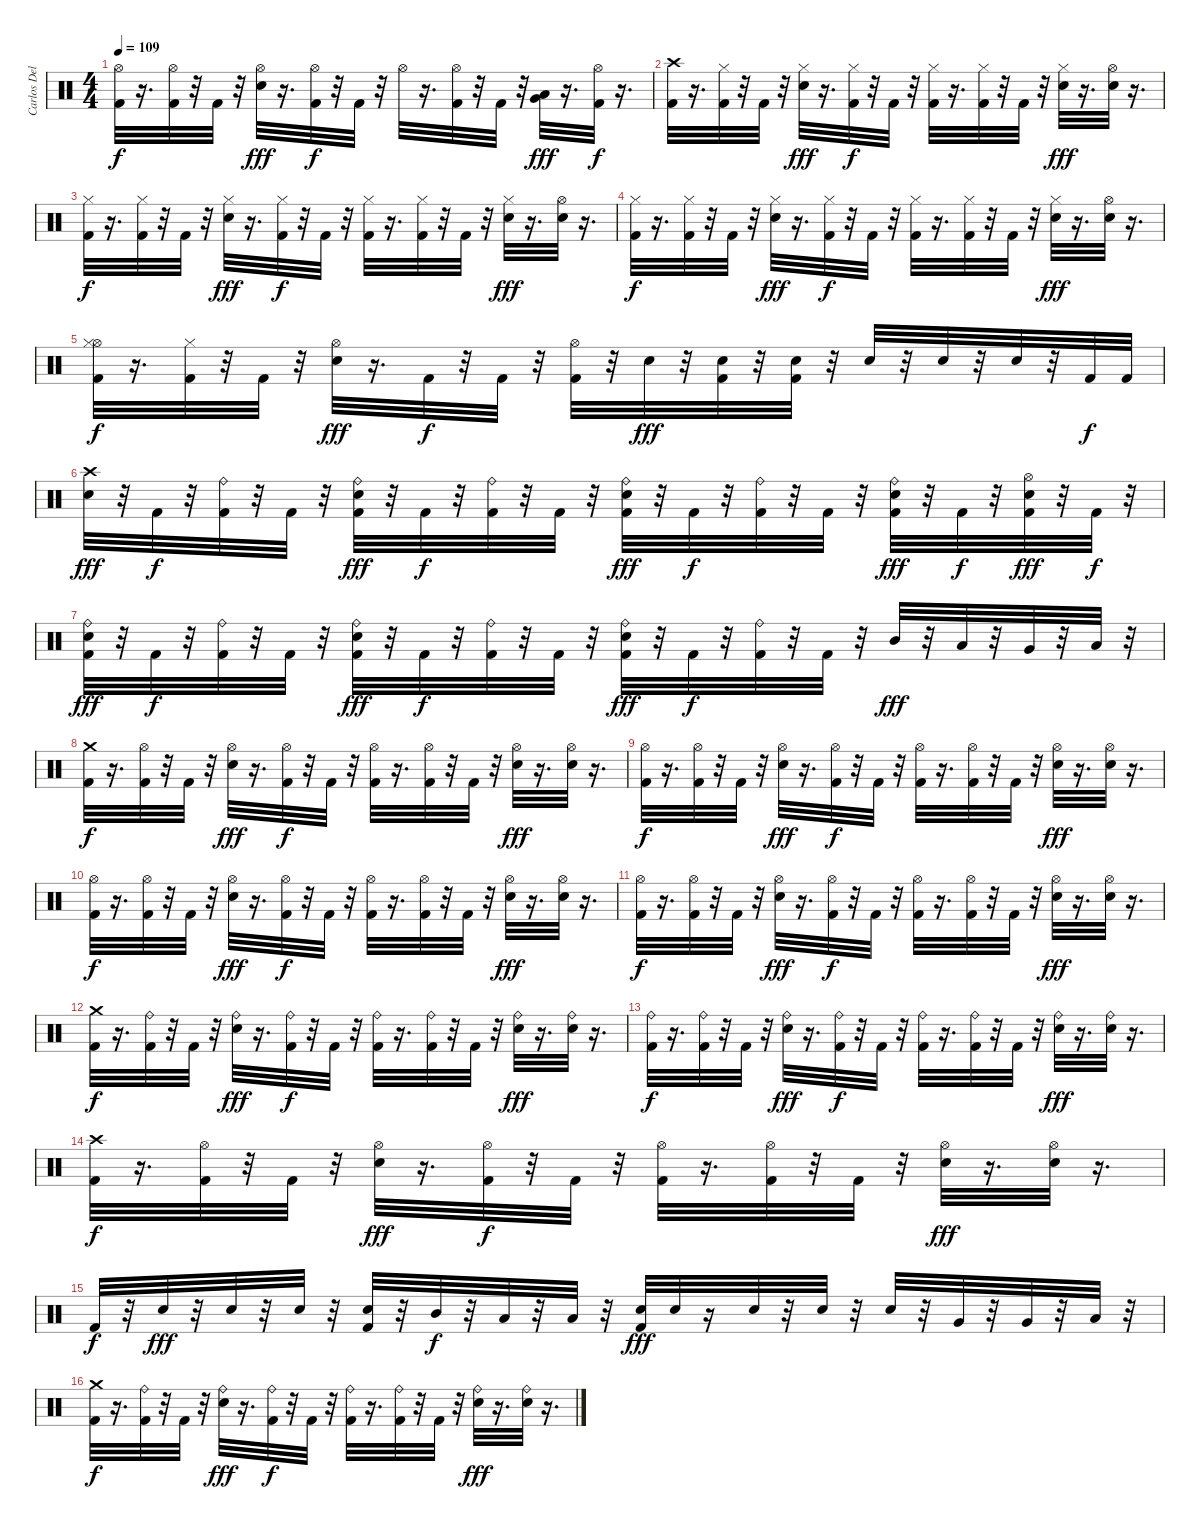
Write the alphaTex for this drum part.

\track ("Carlos Delgado" "Carlos Del") {instrument percussion}
\staff {score}
\articulation defaults
\ts (4 4)
\tempo 109
\clef neutral
\ks c
("Hi-Hat (open)" "Kick (hit) 2").32{dy f} r.16{d} ("Hi-Hat (open)" "Kick (hit) 2").32 r.32 "Kick (hit) 2".32 r.32 ("Hi-Hat (open)" "Electric Snare (hit)").32{dy fff} r.16{d} ("Hi-Hat (open)" "Kick (hit) 2").32{dy f} r.32 "Kick (hit) 2".32 r.32 "Hi-Hat (open)".32 r.16{d} ("Hi-Hat (open)" "Kick (hit) 2").32 r.32 "Kick (hit) 2".32 r.32 ("Very Low Tom (hit)" "Low Floor Tom (hit)").32{dy fff} r.16{d} ("Hi-Hat (open)" "Kick (hit) 2").32{dy f} r.16{d} |
("Crash high (hit)" "Kick (hit) 2").32 r.16{d} ("Kick (hit) 2" "Hi-Hat (closed)").32 r.32 "Kick (hit) 2".32 r.32 ("Hi-Hat (closed)" "Electric Snare (hit)").32{dy fff} r.16{d} ("Hi-Hat (closed)" "Kick (hit) 2").32{dy f} r.32 "Kick (hit) 2".32 r.32 ("Kick (hit) 2" "Hi-Hat (closed)").32 r.16{d} ("Kick (hit) 2" "Hi-Hat (closed)").32 r.32 "Kick (hit) 2".32 r.32 ("Electric Snare (hit)" "Hi-Hat (closed)").32{dy fff} r.16{d} ("Hi-Hat (open)" "Electric Snare (hit)").32 r.16{d} |
("Kick (hit) 2" "Hi-Hat (closed)").32{dy f} r.16{d} ("Hi-Hat (closed)" "Kick (hit) 2").32 r.32 "Kick (hit) 2".32 r.32 ("Hi-Hat (closed)" "Electric Snare (hit)").32{dy fff} r.16{d} ("Kick (hit) 2" "Hi-Hat (closed)").32{dy f} r.32 "Kick (hit) 2".32 r.32 ("Hi-Hat (closed)" "Kick (hit) 2").32 r.16{d} ("Kick (hit) 2" "Hi-Hat (closed)").32 r.32 "Kick (hit) 2".32 r.32 ("Electric Snare (hit)" "Hi-Hat (closed)").32{dy fff} r.16{d} ("Electric Snare (hit)" "Hi-Hat (open)").32 r.16{d} |
("Hi-Hat (closed)" "Kick (hit) 2").32{dy f} r.16{d} ("Hi-Hat (closed)" "Kick (hit) 2").32 r.32 "Kick (hit) 2".32 r.32 ("Electric Snare (hit)" "Hi-Hat (closed)").32{dy fff} r.16{d} ("Kick (hit) 2" "Hi-Hat (closed)").32{dy f} r.32 "Kick (hit) 2".32 r.32 ("Hi-Hat (closed)" "Kick (hit) 2").32 r.16{d} ("Hi-Hat (closed)" "Kick (hit) 2").32 r.32 "Kick (hit) 2".32 r.32 ("Hi-Hat (closed)" "Electric Snare (hit)").32{dy fff} r.16{d} ("Electric Snare (hit)" "Hi-Hat (open)").32 r.16{d} |
("Hi-Hat (open)" "Hi-Hat (closed)" "Kick (hit) 2").32{dy f} r.16{d} ("Hi-Hat (closed)" "Kick (hit) 2").32 r.32 "Kick (hit) 2".32 r.32 ("Electric Snare (hit)" "Hi-Hat (open)").32{dy fff} r.16{d} "Kick (hit) 2".32{dy f} r.32 "Kick (hit) 2".32 r.32 ("Kick (hit) 2" "Hi-Hat (open)").32 r.32 "Electric Snare (hit)".32{dy fff} r.32 ("Kick (hit) 2" "Electric Snare (hit)").32 r.32 ("Electric Snare (hit)" "Kick (hit) 2").32 r.32 "Electric Snare (hit)".32 r.32 "Electric Snare (hit)".32 r.32 "Electric Snare (hit)".32 r.32 "Kick (hit) 2".32{dy f} "Kick (hit) 2".32 |
("Crash high (hit)" "Electric Snare (hit)").32{dy fff} r.32 "Kick (hit) 2".32{dy f} r.32 ("Kick (hit) 2" "Ride (bell)").32 r.32 "Kick (hit) 2".32 r.32 ("Ride (bell)" "Electric Snare (hit)" "Kick (hit) 2").32{dy fff} r.32 "Kick (hit) 2".32{dy f} r.32 ("Ride (bell)" "Kick (hit) 2").32 r.32 "Kick (hit) 2".32 r.32 ("Electric Snare (hit)" "Ride (bell)" "Kick (hit) 2").32{dy fff} r.32 "Kick (hit) 2".32{dy f} r.32 ("Ride (bell)" "Kick (hit) 2").32 r.32 "Kick (hit) 2".32 r.32 ("Ride (bell)" "Kick (hit) 2" "Electric Snare (hit)").32{dy fff} r.32 "Kick (hit) 2".32{dy f} r.32 ("Electric Snare (hit)" "Kick (hit) 2" "Hi-Hat (open)").32{dy fff} r.32 "Kick (hit) 2".32{dy f} r.32 |
("Electric Snare (hit)" "Ride (bell)" "Kick (hit) 2").32{dy fff} r.32 "Kick (hit) 2".32{dy f} r.32 ("Ride (bell)" "Kick (hit) 2").32 r.32 "Kick (hit) 2".32 r.32 ("Ride (bell)" "Electric Snare (hit)" "Kick (hit) 2").32{dy fff} r.32 "Kick (hit) 2".32{dy f} r.32 ("Kick (hit) 2" "Ride (bell)").32 r.32 "Kick (hit) 2".32 r.32 ("Electric Snare (hit)" "Ride (bell)" "Kick (hit) 2").32{dy fff} r.32 "Kick (hit) 2".32{dy f} r.32 ("Ride (bell)" "Kick (hit) 2").32 r.32 "Kick (hit) 2".32 r.32 "Mid Tom (hit)".32{dy fff} r.32 "Low Tom (hit)".32 r.32 "Very Low Tom (hit)".32 r.32 "Low Floor Tom (hit)".32 r.32 |
("Crash medium (hit)" "Kick (hit) 2").32{dy f} r.16{d} ("Hi-Hat (open)" "Kick (hit) 2").32 r.32 "Kick (hit) 2".32 r.32 ("Electric Snare (hit)" "Hi-Hat (open)").32{dy fff} r.16{d} ("Kick (hit) 2" "Hi-Hat (open)").32{dy f} r.32 "Kick (hit) 2".32 r.32 ("Hi-Hat (open)" "Kick (hit) 2").32 r.16{d} ("Hi-Hat (open)" "Kick (hit) 2").32 r.32 "Kick (hit) 2".32 r.32 ("Hi-Hat (open)" "Electric Snare (hit)").32{dy fff} r.16{d} ("Electric Snare (hit)" "Hi-Hat (open)").32 r.16{d} |
("Kick (hit) 2" "Hi-Hat (open)").32{dy f} r.16{d} ("Hi-Hat (open)" "Kick (hit) 2").32 r.32 "Kick (hit) 2".32 r.32 ("Hi-Hat (open)" "Electric Snare (hit)").32{dy fff} r.16{d} ("Hi-Hat (open)" "Kick (hit) 2").32{dy f} r.32 "Kick (hit) 2".32 r.32 ("Hi-Hat (open)" "Kick (hit) 2").32 r.16{d} ("Kick (hit) 2" "Hi-Hat (open)").32 r.32 "Kick (hit) 2".32 r.32 ("Electric Snare (hit)" "Hi-Hat (open)").32{dy fff} r.16{d} ("Electric Snare (hit)" "Hi-Hat (open)").32 r.16{d} |
("Hi-Hat (open)" "Kick (hit) 2").32{dy f} r.16{d} ("Kick (hit) 2" "Hi-Hat (open)").32 r.32 "Kick (hit) 2".32 r.32 ("Hi-Hat (open)" "Electric Snare (hit)").32{dy fff} r.16{d} ("Kick (hit) 2" "Hi-Hat (open)").32{dy f} r.32 "Kick (hit) 2".32 r.32 ("Kick (hit) 2" "Hi-Hat (open)").32 r.16{d} ("Hi-Hat (open)" "Kick (hit) 2").32 r.32 "Kick (hit) 2".32 r.32 ("Electric Snare (hit)" "Hi-Hat (open)").32{dy fff} r.16{d} ("Electric Snare (hit)" "Hi-Hat (open)").32 r.16{d} |
("Hi-Hat (open)" "Kick (hit) 2").32{dy f} r.16{d} ("Hi-Hat (open)" "Kick (hit) 2").32 r.32 "Kick (hit) 2".32 r.32 ("Electric Snare (hit)" "Hi-Hat (open)").32{dy fff} r.16{d} ("Kick (hit) 2" "Hi-Hat (open)").32{dy f} r.32 "Kick (hit) 2".32 r.32 ("Hi-Hat (open)" "Kick (hit) 2").32 r.16{d} ("Hi-Hat (open)" "Kick (hit) 2").32 r.32 "Kick (hit) 2".32 r.32 ("Hi-Hat (open)" "Electric Snare (hit)").32{dy fff} r.16{d} ("Hi-Hat (open)" "Electric Snare (hit)").32 r.16{d} |
("Kick (hit) 2" "Crash medium (hit)").32{dy f} r.16{d} ("Kick (hit) 2" "Ride (bell)").32 r.32 "Kick (hit) 2".32 r.32 ("Electric Snare (hit)" "Ride (bell)").32{dy fff} r.16{d} ("Kick (hit) 2" "Ride (bell)").32{dy f} r.32 "Kick (hit) 2".32 r.32 ("Kick (hit) 2" "Ride (bell)").32 r.16{d} ("Ride (bell)" "Kick (hit) 2").32 r.32 "Kick (hit) 2".32 r.32 ("Ride (bell)" "Electric Snare (hit)").32{dy fff} r.16{d} ("Ride (bell)" "Electric Snare (hit)").32 r.16{d} |
("Ride (bell)" "Kick (hit) 2").32{dy f} r.16{d} ("Kick (hit) 2" "Ride (bell)").32 r.32 "Kick (hit) 2".32 r.32 ("Electric Snare (hit)" "Ride (bell)").32{dy fff} r.16{d} ("Ride (bell)" "Kick (hit) 2").32{dy f} r.32 "Kick (hit) 2".32 r.32 ("Kick (hit) 2" "Ride (bell)").32 r.16{d} ("Ride (bell)" "Kick (hit) 2").32 r.32 "Kick (hit) 2".32 r.32 ("Ride (bell)" "Electric Snare (hit)").32{dy fff} r.16{d} ("Ride (bell)" "Electric Snare (hit)").32 r.16{d} |
("Kick (hit) 2" "Crash high (hit)").32{dy f} r.16{d} ("Kick (hit) 2" "Hi-Hat (open)").32 r.32 "Kick (hit) 2".32 r.32 ("Electric Snare (hit)" "Hi-Hat (open)").32{dy fff} r.16{d} ("Kick (hit) 2" "Hi-Hat (open)").32{dy f} r.32 "Kick (hit) 2".32 r.32 ("Kick (hit) 2" "Hi-Hat (open)").32 r.16{d} ("Kick (hit) 2" "Hi-Hat (open)").32 r.32 "Kick (hit) 2".32 r.32 ("Electric Snare (hit)" "Hi-Hat (open)").32{dy fff} r.16{d} ("Hi-Hat (open)" "Electric Snare (hit)").32 r.16{d} |
"Kick (hit) 2".32{dy f} r.32 "Electric Snare (hit)".32{dy fff} r.32 "Electric Snare (hit)".32 r.32 "Electric Snare (hit)".32 r.32 ("Electric Snare (hit)" "Kick (hit) 2").32 r.32 "Mid Tom (hit)".32{dy f} r.32 "Low Tom (hit)".32 r.32 "Low Floor Tom (hit)".32 r.32 ("Electric Snare (hit)" "Kick (hit) 2").32{dy fff} "Electric Snare (hit)".32 r.16 "Electric Snare (hit)".32 r.32 "Electric Snare (hit)".32 r.32 "Electric Snare (hit)".32 r.32 "Very Low Tom (hit)".32 r.32 "Very Low Tom (hit)".32 r.32 "Low Floor Tom (hit)".32 r.32 |
("Crash medium (hit)" "Kick (hit) 2").32{dy f} r.16{d} ("Kick (hit) 2" "Ride (bell)").32 r.32 "Kick (hit) 2".32 r.32 ("Ride (bell)" "Electric Snare (hit)").32{dy fff} r.16{d} ("Kick (hit) 2" "Ride (bell)").32{dy f} r.32 "Kick (hit) 2".32 r.32 ("Kick (hit) 2" "Ride (bell)").32 r.16{d} ("Ride (bell)" "Kick (hit) 2").32 r.32 "Kick (hit) 2".32 r.32 ("Electric Snare (hit)" "Ride (bell)").32{dy fff} r.16{d} ("Electric Snare (hit)" "Ride (bell)").32 r.16{d}
